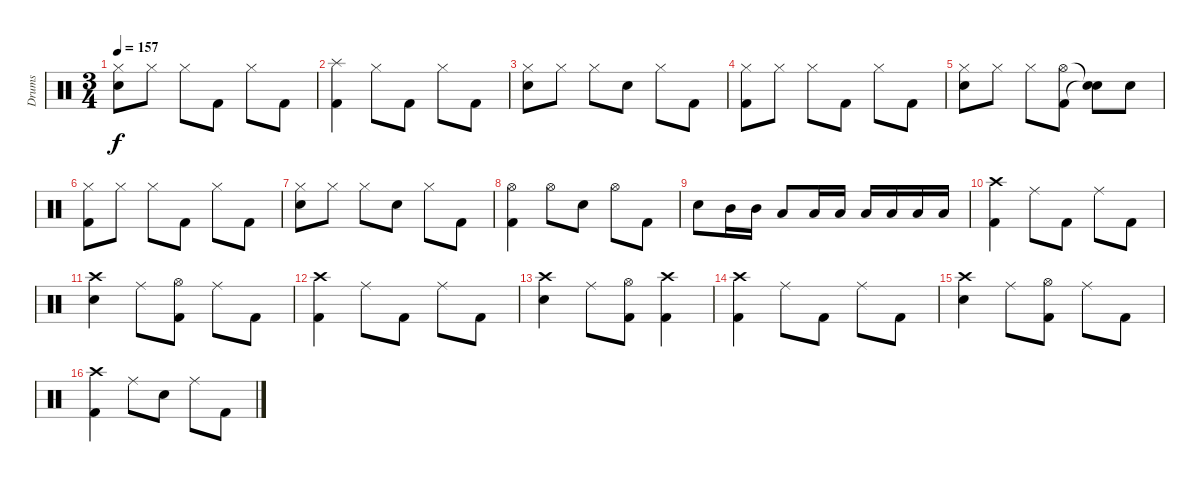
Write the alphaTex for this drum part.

\track ("Drums" "Drums") {instrument percussion}
\staff {score}
\articulation defaults
\ts (3 4)
\tempo 157
\clef neutral
\ks c
("Hi-Hat (closed)" "Electric Snare (hit)").8{dy f} "Hi-Hat (closed)".8 "Hi-Hat (closed)".8 "Kick (hit) 2".8 "Hi-Hat (closed)".8 "Kick (hit) 2".8 |
("Splash (hit)" "Kick (hit) 2").4 "Hi-Hat (closed)".8 "Kick (hit) 2".8 "Hi-Hat (closed)".8 "Kick (hit) 2".8 |
("Hi-Hat (closed)" "Electric Snare (hit)").8 "Hi-Hat (closed)".8 "Hi-Hat (closed)".8 "Electric Snare (hit)".8 "Hi-Hat (closed)".8 "Kick (hit) 2".8 |
("Hi-Hat (closed)" "Kick (hit) 2").8 "Hi-Hat (closed)".8 "Hi-Hat (closed)".8 "Kick (hit) 2".8 "Hi-Hat (closed)".8 "Kick (hit) 2".8 |
("Hi-Hat (closed)" "Electric Snare (hit)").8 "Hi-Hat (closed)".8 "Hi-Hat (closed)".8 ("Hi-Hat (open)" "Kick (hit) 2").8 ("Snare (hit)"{t} "Snare (hit)"{t}).8 "Electric Snare (hit)".8 |
("Hi-Hat (closed)" "Kick (hit) 2").8 "Hi-Hat (closed)".8 "Hi-Hat (closed)".8 "Kick (hit) 2".8 "Hi-Hat (closed)".8 "Kick (hit) 2".8 |
("Hi-Hat (closed)" "Electric Snare (hit)").8 "Hi-Hat (closed)".8 "Hi-Hat (closed)".8 "Electric Snare (hit)".8 "Hi-Hat (closed)".8 "Kick (hit) 2".8 |
("Hi-Hat (open)" "Kick (hit) 2").4 "Hi-Hat (open)".8 "Electric Snare (hit)".8 "Hi-Hat (open)".8 "Kick (hit) 2".8 |
"Electric Snare (hit)".8 "Mid Tom (hit)".16 "Mid Tom (hit)".16 "Low Tom (hit)".8 "Low Tom (hit)".16 "Low Tom (hit)".16 "Low Floor Tom (hit)".16 "Low Floor Tom (hit)".16 "Low Floor Tom (hit)".16 "Low Floor Tom (hit)".16 |
("Crash high (hit)" "Kick (hit) 2").4 "Ride (middle)".8 "Kick (hit) 2".8 "Ride (middle)".8 "Kick (hit) 2".8 |
("Crash high (hit)" "Electric Snare (hit)").4 "Ride (middle)".8 ("Hi-Hat (open)" "Kick (hit) 2").8 "Ride (middle)".8 "Kick (hit) 2".8 |
("Crash high (hit)" "Kick (hit) 2").4 "Ride (middle)".8 "Kick (hit) 2".8 "Ride (middle)".8 "Kick (hit) 2".8 |
("Crash high (hit)" "Electric Snare (hit)").4 "Ride (middle)".8 ("Hi-Hat (open)" "Kick (hit) 2").8 ("Crash high (hit)" "Kick (hit) 2").4 |
("Crash high (hit)" "Kick (hit) 2").4 "Ride (middle)".8 "Kick (hit) 2".8 "Ride (middle)".8 "Kick (hit) 2".8 |
("Crash high (hit)" "Electric Snare (hit)").4 "Ride (middle)".8 ("Hi-Hat (open)" "Kick (hit) 2").8 "Ride (middle)".8 "Kick (hit) 2".8 |
("Crash high (hit)" "Kick (hit) 2").4 "Ride (middle)".8 "Electric Snare (hit)".8 "Ride (middle)".8 "Kick (hit) 2".8
